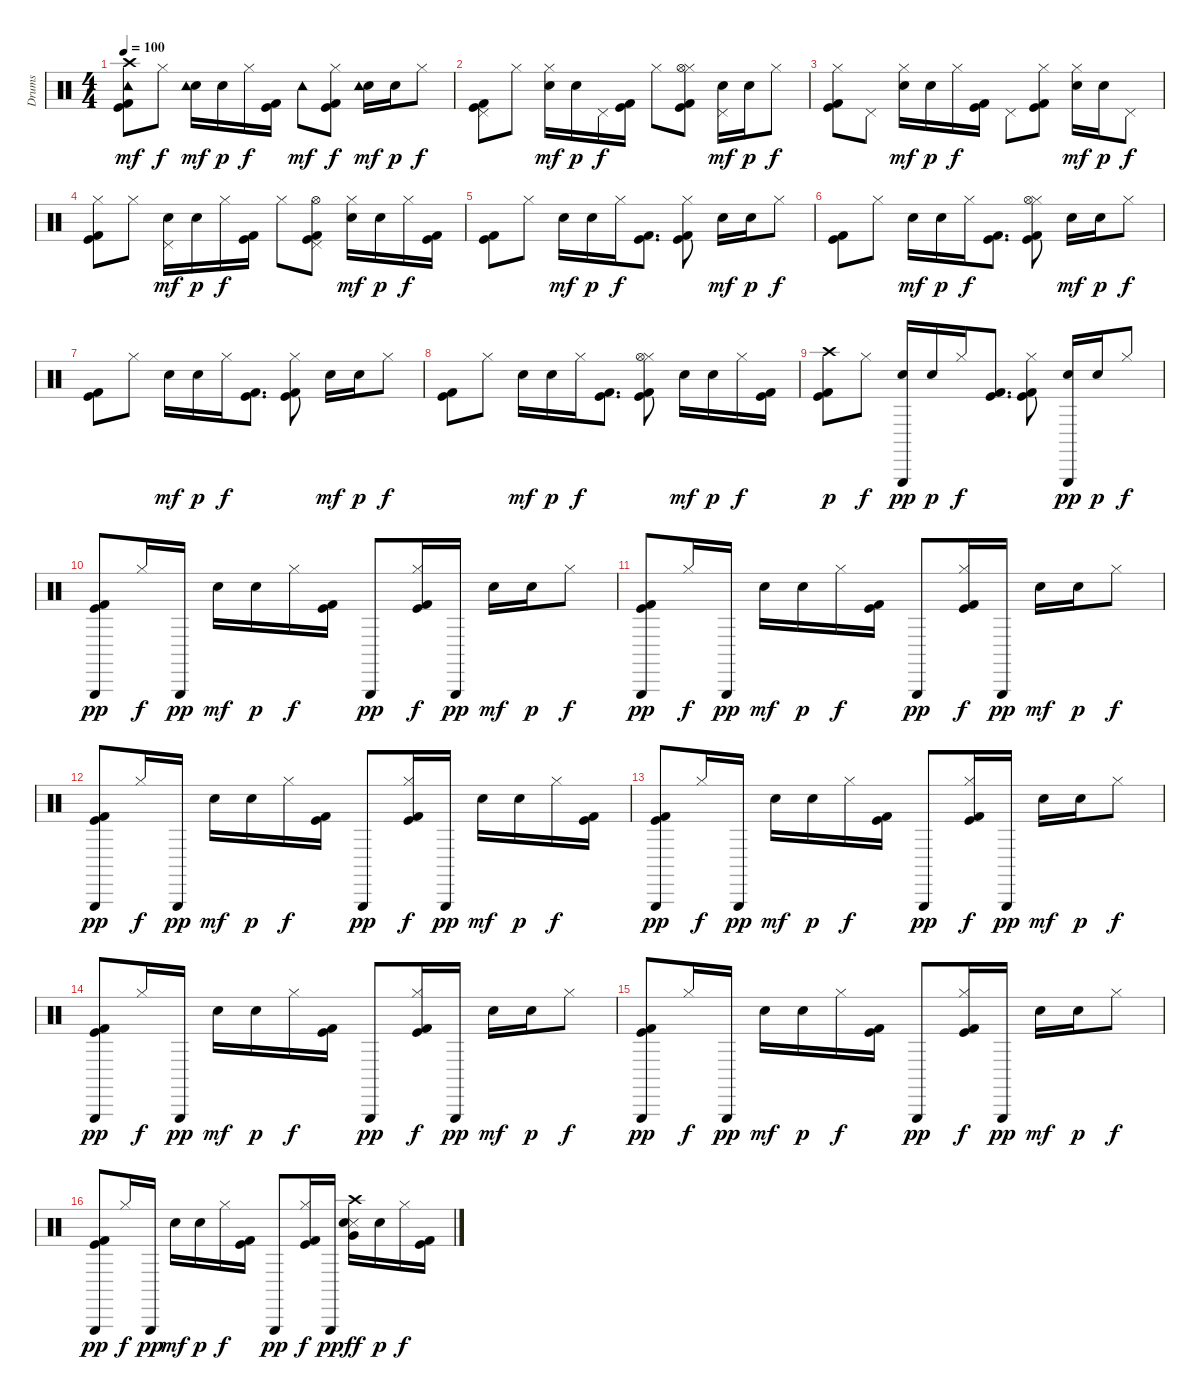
\track ("Drums" "Drums") {instrument percussion}
\staff {score}
\articulation defaults
\ts (4 4)
\tempo 100
\clef neutral
\ks c
("Kick (hit)" "Kick (hit) 2" "Tambourine (hit)" "Crash high (hit)").8{dy mf} "Hi-Hat (closed)".8{dy f} ("Hand Clap (hit)" "Tambourine (hit)").16{dy mf} "Hand Clap (hit)".16{dy p} "Hi-Hat (closed)".16{dy f} ("Kick (hit)" "Kick (hit) 2").16 "Tambourine (hit)".8{dy mf} ("Kick (hit)" "Kick (hit) 2" "Hi-Hat (closed)").8{dy f} ("Hand Clap (hit)" "Tambourine (hit)").16{dy mf} "Hand Clap (hit)".16{dy p} "Hi-Hat (closed)".8{dy f} |
("Kick (hit)" "Kick (hit) 2" "Pedal Hi-Hat (hit)").8 "Hi-Hat (closed)".8 ("Hand Clap (hit)" "Hi-Hat (closed)").16{dy mf} "Hand Clap (hit)".16{dy p} "Pedal Hi-Hat (hit)".16{dy f} ("Kick (hit)" "Kick (hit) 2").16 "Hi-Hat (closed)".8 ("Kick (hit)" "Kick (hit) 2" "Hi-Hat (closed)" "Hi-Hat (open)").8 ("Hand Clap (hit)" "Pedal Hi-Hat (hit)").16{dy mf} "Hand Clap (hit)".16{dy p} "Hi-Hat (closed)".8{dy f} |
("Kick (hit)" "Kick (hit) 2" "Hi-Hat (closed)").8 "Pedal Hi-Hat (hit)".8 ("Hand Clap (hit)" "Hi-Hat (closed)").16{dy mf} "Hand Clap (hit)".16{dy p} "Hi-Hat (closed)".16{dy f} ("Kick (hit)" "Kick (hit) 2").16 "Pedal Hi-Hat (hit)".8 ("Kick (hit)" "Kick (hit) 2" "Hi-Hat (closed)").8 ("Hand Clap (hit)" "Hi-Hat (closed)").16{dy mf} "Hand Clap (hit)".16{dy p} "Pedal Hi-Hat (hit)".8{dy f} |
("Kick (hit)" "Kick (hit) 2" "Hi-Hat (closed)").8 "Hi-Hat (closed)".8 ("Hand Clap (hit)" "Pedal Hi-Hat (hit)").16{dy mf} "Hand Clap (hit)".16{dy p} "Hi-Hat (closed)".16{dy f} ("Kick (hit)" "Kick (hit) 2").16 "Hi-Hat (closed)".8 ("Kick (hit)" "Kick (hit) 2" "Pedal Hi-Hat (hit)" "Hi-Hat (open)").8 ("Hand Clap (hit)" "Hi-Hat (closed)").16{dy mf} "Hand Clap (hit)".16{dy p} "Hi-Hat (closed)".16{dy f} ("Kick (hit)" "Kick (hit) 2").16 |
("Kick (hit)" "Kick (hit) 2").8 "Hi-Hat (closed)".8 "Hand Clap (hit)".16{dy mf} "Hand Clap (hit)".16{dy p} "Hi-Hat (closed)".16{dy f} ("Kick (hit)" "Kick (hit) 2").8{d} ("Kick (hit)" "Kick (hit) 2" "Hi-Hat (closed)").8 "Hand Clap (hit)".16{dy mf} "Hand Clap (hit)".16{dy p} "Hi-Hat (closed)".8{dy f} |
("Kick (hit)" "Kick (hit) 2").8 "Hi-Hat (closed)".8 "Hand Clap (hit)".16{dy mf} "Hand Clap (hit)".16{dy p} "Hi-Hat (closed)".16{dy f} ("Kick (hit)" "Kick (hit) 2").8{d} ("Kick (hit)" "Kick (hit) 2" "Hi-Hat (closed)" "Hi-Hat (open)").8 "Hand Clap (hit)".16{dy mf} "Hand Clap (hit)".16{dy p} "Hi-Hat (closed)".8{dy f} |
("Kick (hit)" "Kick (hit) 2").8 "Hi-Hat (closed)".8 "Hand Clap (hit)".16{dy mf} "Hand Clap (hit)".16{dy p} "Hi-Hat (closed)".16{dy f} ("Kick (hit)" "Kick (hit) 2").8{d} ("Kick (hit)" "Kick (hit) 2" "Hi-Hat (closed)").8 "Hand Clap (hit)".16{dy mf} "Hand Clap (hit)".16{dy p} "Hi-Hat (closed)".8{dy f} |
("Kick (hit)" "Kick (hit) 2").8 "Hi-Hat (closed)".8 "Hand Clap (hit)".16{dy mf} "Hand Clap (hit)".16{dy p} "Hi-Hat (closed)".16{dy f} ("Kick (hit)" "Kick (hit) 2").8{d} ("Kick (hit)" "Kick (hit) 2" "Hi-Hat (closed)" "Hi-Hat (open)").8 "Hand Clap (hit)".16{dy mf} "Hand Clap (hit)".16{dy p} "Hi-Hat (closed)".16{dy f} ("Kick (hit)" "Kick (hit) 2").16 |
("Kick (hit)" "Kick (hit) 2" "Crash high (hit)").8{dy p} "Hi-Hat (closed)".8{dy f} ("Hand Clap (hit)" "Triangle (hit)").16{dy pp} "Hand Clap (hit)".16{dy p} "Hi-Hat (closed)".16{dy f} ("Kick (hit)" "Kick (hit) 2").8{d} ("Kick (hit)" "Kick (hit) 2" "Hi-Hat (closed)").8 ("Hand Clap (hit)" "Triangle (hit)").16{dy pp} "Hand Clap (hit)".16{dy p} "Hi-Hat (closed)".8{dy f} |
("Kick (hit)" "Kick (hit) 2" "Triangle (hit)").8{dy pp} "Hi-Hat (closed)".16{dy f} "Triangle (hit)".16{dy pp} "Hand Clap (hit)".16{dy mf} "Hand Clap (hit)".16{dy p} "Hi-Hat (closed)".16{dy f} ("Kick (hit)" "Kick (hit) 2").16 "Triangle (hit)".8{dy pp} ("Kick (hit)" "Kick (hit) 2" "Hi-Hat (closed)").16{dy f} "Triangle (hit)".16{dy pp} "Hand Clap (hit)".16{dy mf} "Hand Clap (hit)".16{dy p} "Hi-Hat (closed)".8{dy f} |
("Kick (hit)" "Kick (hit) 2" "Triangle (hit)").8{dy pp} "Hi-Hat (closed)".16{dy f} "Triangle (hit)".16{dy pp} "Hand Clap (hit)".16{dy mf} "Hand Clap (hit)".16{dy p} "Hi-Hat (closed)".16{dy f} ("Kick (hit)" "Kick (hit) 2").16 "Triangle (hit)".8{dy pp} ("Kick (hit)" "Kick (hit) 2" "Hi-Hat (closed)").16{dy f} "Triangle (hit)".16{dy pp} "Hand Clap (hit)".16{dy mf} "Hand Clap (hit)".16{dy p} "Hi-Hat (closed)".8{dy f} |
("Kick (hit)" "Kick (hit) 2" "Triangle (hit)").8{dy pp} "Hi-Hat (closed)".16{dy f} "Triangle (hit)".16{dy pp} "Hand Clap (hit)".16{dy mf} "Hand Clap (hit)".16{dy p} "Hi-Hat (closed)".16{dy f} ("Kick (hit)" "Kick (hit) 2").16 "Triangle (hit)".8{dy pp} ("Kick (hit)" "Kick (hit) 2" "Hi-Hat (closed)").16{dy f} "Triangle (hit)".16{dy pp} "Hand Clap (hit)".16{dy mf} "Hand Clap (hit)".16{dy p} "Hi-Hat (closed)".16{dy f} ("Kick (hit)" "Kick (hit) 2").16 |
("Kick (hit)" "Kick (hit) 2" "Triangle (hit)").8{dy pp} "Hi-Hat (closed)".16{dy f} "Triangle (hit)".16{dy pp} "Hand Clap (hit)".16{dy mf} "Hand Clap (hit)".16{dy p} "Hi-Hat (closed)".16{dy f} ("Kick (hit)" "Kick (hit) 2").16 "Triangle (hit)".8{dy pp} ("Kick (hit)" "Kick (hit) 2" "Hi-Hat (closed)").16{dy f} "Triangle (hit)".16{dy pp} "Hand Clap (hit)".16{dy mf} "Hand Clap (hit)".16{dy p} "Hi-Hat (closed)".8{dy f} |
("Kick (hit)" "Kick (hit) 2" "Triangle (hit)").8{dy pp} "Hi-Hat (closed)".16{dy f} "Triangle (hit)".16{dy pp} "Hand Clap (hit)".16{dy mf} "Hand Clap (hit)".16{dy p} "Hi-Hat (closed)".16{dy f} ("Kick (hit)" "Kick (hit) 2").16 "Triangle (hit)".8{dy pp} ("Kick (hit)" "Kick (hit) 2" "Hi-Hat (closed)").16{dy f} "Triangle (hit)".16{dy pp} "Hand Clap (hit)".16{dy mf} "Hand Clap (hit)".16{dy p} "Hi-Hat (closed)".8{dy f} |
("Kick (hit)" "Kick (hit) 2" "Triangle (hit)").8{dy pp} "Hi-Hat (closed)".16{dy f} "Triangle (hit)".16{dy pp} "Hand Clap (hit)".16{dy mf} "Hand Clap (hit)".16{dy p} "Hi-Hat (closed)".16{dy f} ("Kick (hit)" "Kick (hit) 2").16 "Triangle (hit)".8{dy pp} ("Kick (hit)" "Kick (hit) 2" "Hi-Hat (closed)").16{dy f} "Triangle (hit)".16{dy pp} "Hand Clap (hit)".16{dy mf} "Hand Clap (hit)".16{dy p} "Hi-Hat (closed)".8{dy f} |
("Kick (hit)" "Kick (hit) 2" "Triangle (hit)").8{dy pp} "Hi-Hat (closed)".16{dy f} "Triangle (hit)".16{dy pp} "Hand Clap (hit)".16{dy mf} "Hand Clap (hit)".16{dy p} "Hi-Hat (closed)".16{dy f} ("Kick (hit)" "Kick (hit) 2").16 "Triangle (hit)".8{dy pp} ("Kick (hit)" "Kick (hit) 2" "Hi-Hat (closed)").16{dy f} "Triangle (hit)".16{dy pp} ("Snare (side stick) 3" "Hand Clap (hit)" "Very Low Tom (hit)" "Crash high (hit)").16{dy ff} "Hand Clap (hit)".16{dy p} "Hi-Hat (closed)".16{dy f} ("Kick (hit)" "Kick (hit) 2").16
